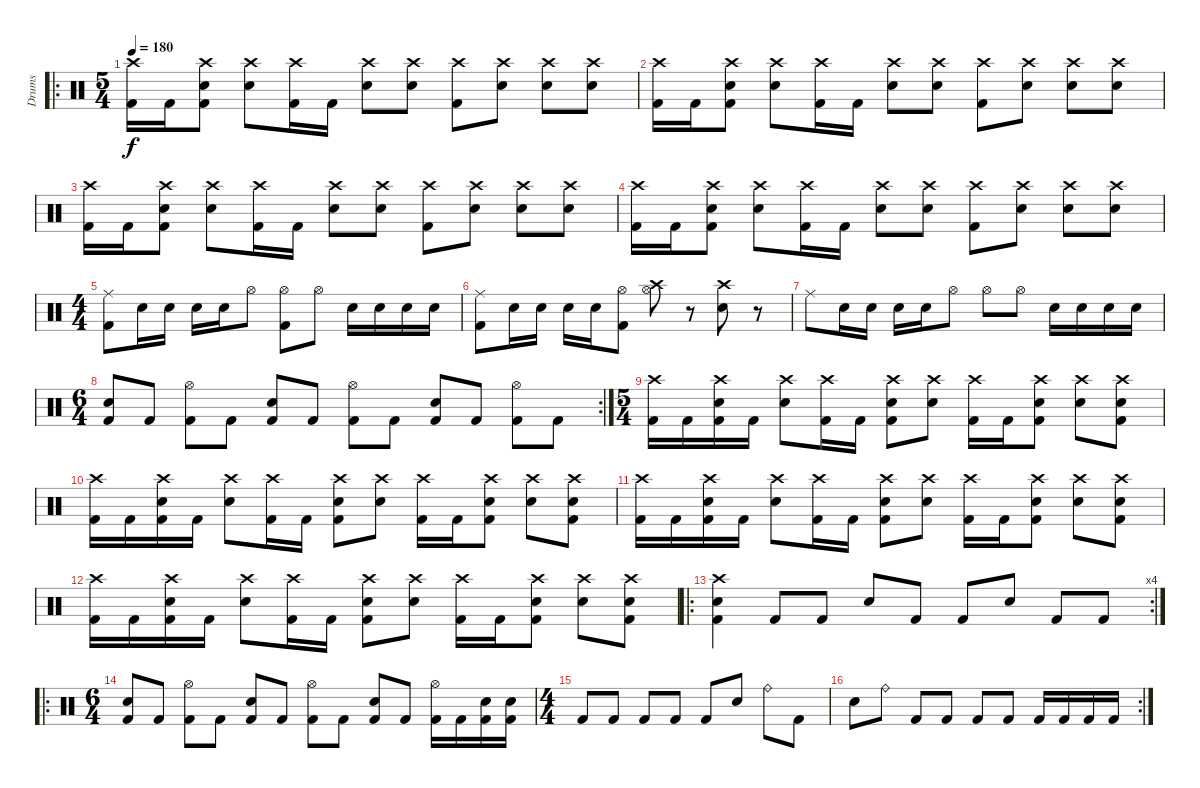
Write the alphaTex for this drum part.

\track ("Drums" "Drums") {instrument percussion}
\staff {score}
\articulation defaults
\ro
\ts (5 4)
\tempo 180
\clef neutral
\ks c
("Crash high (hit)" "Kick (hit) 2").16{dy f} "Kick (hit) 2".16 ("Crash high (hit)" "Electric Snare (hit)" "Kick (hit) 2").8 ("Crash high (hit)" "Electric Snare (hit)").8 ("Crash high (hit)" "Kick (hit) 2").16 "Kick (hit) 2".16 ("Crash high (hit)" "Electric Snare (hit)").8 ("Crash high (hit)" "Electric Snare (hit)").8 ("Crash high (hit)" "Kick (hit) 2").8 ("Crash high (hit)" "Electric Snare (hit)").8 ("Crash high (hit)" "Electric Snare (hit)").8 ("Crash high (hit)" "Electric Snare (hit)").8 |
("Crash high (hit)" "Kick (hit) 2").16 "Kick (hit) 2".16 ("Crash high (hit)" "Electric Snare (hit)" "Kick (hit) 2").8 ("Crash high (hit)" "Electric Snare (hit)").8 ("Crash high (hit)" "Kick (hit) 2").16 "Kick (hit) 2".16 ("Crash high (hit)" "Electric Snare (hit)").8 ("Crash high (hit)" "Electric Snare (hit)").8 ("Crash high (hit)" "Kick (hit) 2").8 ("Crash high (hit)" "Electric Snare (hit)").8 ("Crash high (hit)" "Electric Snare (hit)").8 ("Crash high (hit)" "Electric Snare (hit)").8 |
("Crash high (hit)" "Kick (hit) 2").16 "Kick (hit) 2".16 ("Crash high (hit)" "Electric Snare (hit)" "Kick (hit) 2").8 ("Crash high (hit)" "Electric Snare (hit)").8 ("Crash high (hit)" "Kick (hit) 2").16 "Kick (hit) 2".16 ("Crash high (hit)" "Electric Snare (hit)").8 ("Crash high (hit)" "Electric Snare (hit)").8 ("Crash high (hit)" "Kick (hit) 2").8 ("Crash high (hit)" "Electric Snare (hit)").8 ("Crash high (hit)" "Electric Snare (hit)").8 ("Crash high (hit)" "Electric Snare (hit)").8 |
("Crash high (hit)" "Kick (hit) 2").16 "Kick (hit) 2".16 ("Crash high (hit)" "Electric Snare (hit)" "Kick (hit) 2").8 ("Crash high (hit)" "Electric Snare (hit)").8 ("Crash high (hit)" "Kick (hit) 2").16 "Kick (hit) 2".16 ("Crash high (hit)" "Electric Snare (hit)").8 ("Crash high (hit)" "Electric Snare (hit)").8 ("Crash high (hit)" "Kick (hit) 2").8 ("Crash high (hit)" "Electric Snare (hit)").8 ("Crash high (hit)" "Electric Snare (hit)").8 ("Crash high (hit)" "Electric Snare (hit)").8 |
\ts (4 4)
("Ride (middle)" "Kick (hit) 2").8 "Electric Snare (hit)".16 "Electric Snare (hit)".16 "Electric Snare (hit)".16 "Electric Snare (hit)".16 "Hi-Hat (open)".8 ("Hi-Hat (open)" "Kick (hit) 2").8 "Hi-Hat (open)".8 "Electric Snare (hit)".16 "Electric Snare (hit)".16 "Electric Snare (hit)".16 "Electric Snare (hit)".16 |
("Ride (middle)" "Kick (hit) 2").8 "Electric Snare (hit)".16 "Electric Snare (hit)".16 "Electric Snare (hit)".16 "Electric Snare (hit)".16 ("Hi-Hat (open)" "Kick (hit) 2").8 ("Crash high (hit)" "Hi-Hat (open)").8 r.8 ("Crash high (hit)" "Electric Snare (hit)").8 r.8 |
"Ride (middle)".8 "Electric Snare (hit)".16 "Electric Snare (hit)".16 "Electric Snare (hit)".16 "Electric Snare (hit)".16 "Hi-Hat (open)".8 "Hi-Hat (open)".8 "Hi-Hat (open)".8 "Electric Snare (hit)".16 "Electric Snare (hit)".16 "Electric Snare (hit)".16 "Electric Snare (hit)".16 |
\rc 2
\ts (6 4)
("Electric Snare (hit)" "Kick (hit) 2").8 "Kick (hit) 2".8 ("Hi-Hat (open)" "Kick (hit) 2").8 "Kick (hit) 2".8 ("Electric Snare (hit)" "Kick (hit) 2").8 "Kick (hit) 2".8 ("Hi-Hat (open)" "Kick (hit) 2").8 "Kick (hit) 2".8 ("Electric Snare (hit)" "Kick (hit) 2").8 "Kick (hit) 2".8 ("Hi-Hat (open)" "Kick (hit) 2").8 "Kick (hit) 2".8 |
\ts (5 4)
("Crash high (hit)" "Kick (hit) 2").16 "Kick (hit) 2".16 ("Crash high (hit)" "Electric Snare (hit)" "Kick (hit) 2").16 "Kick (hit) 2".16 ("Crash high (hit)" "Electric Snare (hit)").8 ("Crash high (hit)" "Kick (hit) 2").16 "Kick (hit) 2".16 ("Crash high (hit)" "Electric Snare (hit)" "Kick (hit) 2").8 ("Crash high (hit)" "Electric Snare (hit)").8 ("Crash high (hit)" "Kick (hit) 2").16 "Kick (hit) 2".16 ("Crash high (hit)" "Electric Snare (hit)" "Kick (hit) 2").8 ("Crash high (hit)" "Electric Snare (hit)").8 ("Crash high (hit)" "Electric Snare (hit)" "Kick (hit) 2").8 |
("Crash high (hit)" "Kick (hit) 2").16 "Kick (hit) 2".16 ("Crash high (hit)" "Electric Snare (hit)" "Kick (hit) 2").16 "Kick (hit) 2".16 ("Crash high (hit)" "Electric Snare (hit)").8 ("Crash high (hit)" "Kick (hit) 2").16 "Kick (hit) 2".16 ("Crash high (hit)" "Electric Snare (hit)" "Kick (hit) 2").8 ("Crash high (hit)" "Electric Snare (hit)").8 ("Crash high (hit)" "Kick (hit) 2").16 "Kick (hit) 2".16 ("Crash high (hit)" "Electric Snare (hit)" "Kick (hit) 2").8 ("Crash high (hit)" "Electric Snare (hit)").8 ("Crash high (hit)" "Electric Snare (hit)" "Kick (hit) 2").8 |
("Crash high (hit)" "Kick (hit) 2").16 "Kick (hit) 2".16 ("Crash high (hit)" "Electric Snare (hit)" "Kick (hit) 2").16 "Kick (hit) 2".16 ("Crash high (hit)" "Electric Snare (hit)").8 ("Crash high (hit)" "Kick (hit) 2").16 "Kick (hit) 2".16 ("Crash high (hit)" "Electric Snare (hit)" "Kick (hit) 2").8 ("Crash high (hit)" "Electric Snare (hit)").8 ("Crash high (hit)" "Kick (hit) 2").16 "Kick (hit) 2".16 ("Crash high (hit)" "Electric Snare (hit)" "Kick (hit) 2").8 ("Crash high (hit)" "Electric Snare (hit)").8 ("Crash high (hit)" "Electric Snare (hit)" "Kick (hit) 2").8 |
("Crash high (hit)" "Kick (hit) 2").16 "Kick (hit) 2".16 ("Crash high (hit)" "Electric Snare (hit)" "Kick (hit) 2").16 "Kick (hit) 2".16 ("Crash high (hit)" "Electric Snare (hit)").8 ("Crash high (hit)" "Kick (hit) 2").16 "Kick (hit) 2".16 ("Crash high (hit)" "Electric Snare (hit)" "Kick (hit) 2").8 ("Crash high (hit)" "Electric Snare (hit)").8 ("Crash high (hit)" "Kick (hit) 2").16 "Kick (hit) 2".16 ("Crash high (hit)" "Electric Snare (hit)" "Kick (hit) 2").8 ("Crash high (hit)" "Electric Snare (hit)").8 ("Crash high (hit)" "Electric Snare (hit)" "Kick (hit) 2").8 |
\ro
\rc 4
("Crash high (hit)" "Electric Snare (hit)" "Kick (hit) 2").4 "Kick (hit) 2".8 "Kick (hit) 2".8 "Electric Snare (hit)".8 "Kick (hit) 2".8 "Kick (hit) 2".8 "Electric Snare (hit)".8 "Kick (hit) 2".8 "Kick (hit) 2".8 |
\ro
\ts (6 4)
("Electric Snare (hit)" "Kick (hit) 2").8 "Kick (hit) 2".8 ("Hi-Hat (open)" "Kick (hit) 2").8 "Kick (hit) 2".8 ("Electric Snare (hit)" "Kick (hit) 2").8 "Kick (hit) 2".8 ("Hi-Hat (open)" "Kick (hit) 2").8 "Kick (hit) 2".8 ("Electric Snare (hit)" "Kick (hit) 2").8 "Kick (hit) 2".8 ("Hi-Hat (open)" "Kick (hit) 2").16 "Kick (hit) 2".16 ("Electric Snare (hit)" "Kick (hit) 2").16 ("Electric Snare (hit)" "Kick (hit) 2").16 |
\ts (4 4)
"Kick (hit) 2".8 "Kick (hit) 2".8 "Kick (hit) 2".8 "Kick (hit) 2".8 "Kick (hit) 2".8 "Electric Snare (hit)".8 "Ride (bell)".8 "Kick (hit) 2".8 |
\rc 2 "Electric Snare (hit)".8 "Ride (bell)".8 "Kick (hit) 2".8 "Kick (hit) 2".8 "Kick (hit) 2".8 "Kick (hit) 2".8 "Kick (hit) 2".16 "Kick (hit) 2".16 "Kick (hit) 2".16 "Kick (hit) 2".16
